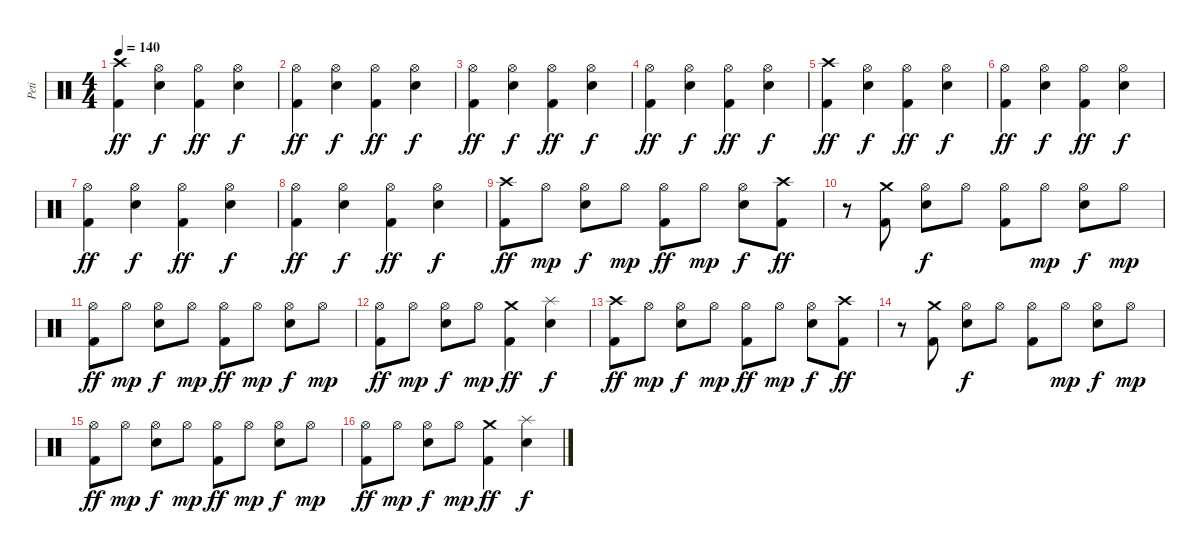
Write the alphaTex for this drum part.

\track ("Peti" "Peti") {instrument percussion}
\staff {score}
\articulation defaults
\ts (4 4)
\tempo 140
\clef neutral
\ks c
("Crash high (hit)" "Kick (hit) 2").4{dy ff} ("Hi-Hat (open)" "Snare (hit) 2").4{dy f} ("Hi-Hat (open)" "Kick (hit) 2").4{dy ff} ("Hi-Hat (open)" "Snare (hit) 2").4{dy f} |
("Hi-Hat (open)" "Kick (hit) 2").4{dy ff} ("Hi-Hat (open)" "Snare (hit) 2").4{dy f} ("Hi-Hat (open)" "Kick (hit) 2").4{dy ff} ("Hi-Hat (open)" "Snare (hit) 2").4{dy f} |
("Hi-Hat (open)" "Kick (hit) 2").4{dy ff} ("Hi-Hat (open)" "Snare (hit) 2").4{dy f} ("Hi-Hat (open)" "Kick (hit) 2").4{dy ff} ("Hi-Hat (open)" "Snare (hit) 2").4{dy f} |
("Hi-Hat (open)" "Kick (hit) 2").4{dy ff} ("Hi-Hat (open)" "Snare (hit) 2").4{dy f} ("Hi-Hat (open)" "Kick (hit) 2").4{dy ff} ("Hi-Hat (open)" "Snare (hit) 2").4{dy f} |
("Crash high (hit)" "Kick (hit) 2").4{dy ff} ("Hi-Hat (open)" "Snare (hit) 2").4{dy f} ("Hi-Hat (open)" "Kick (hit) 2").4{dy ff} ("Hi-Hat (open)" "Snare (hit) 2").4{dy f} |
("Hi-Hat (open)" "Kick (hit) 2").4{dy ff} ("Hi-Hat (open)" "Snare (hit) 2").4{dy f} ("Hi-Hat (open)" "Kick (hit) 2").4{dy ff} ("Hi-Hat (open)" "Snare (hit) 2").4{dy f} |
("Hi-Hat (open)" "Kick (hit) 2").4{dy ff} ("Hi-Hat (open)" "Snare (hit) 2").4{dy f} ("Hi-Hat (open)" "Kick (hit) 2").4{dy ff} ("Hi-Hat (open)" "Snare (hit) 2").4{dy f} |
("Hi-Hat (open)" "Kick (hit) 2").4{dy ff} ("Hi-Hat (open)" "Snare (hit) 2").4{dy f} ("Hi-Hat (open)" "Kick (hit) 2").4{dy ff} ("Hi-Hat (open)" "Snare (hit) 2").4{dy f} |
("Crash high (hit)" "Kick (hit) 2").8{dy ff} "Hi-Hat (open)".8{dy mp} ("Hi-Hat (open)" "Snare (hit) 2").8{dy f} "Hi-Hat (open)".8{dy mp} ("Hi-Hat (open)" "Kick (hit) 2").8{dy ff} "Hi-Hat (open)".8{dy mp} ("Hi-Hat (open)" "Snare (hit) 2").8{dy f} ("Crash high (hit)" "Kick (hit) 2").8{dy ff} |
r.8 ("Crash medium (hit)" "Kick (hit) 2").8 ("Hi-Hat (open)" "Snare (hit) 2").8{dy f} "Hi-Hat (open)".8 ("Hi-Hat (open)" "Kick (hit) 2").8 "Hi-Hat (open)".8{dy mp} ("Hi-Hat (open)" "Snare (hit) 2").8{dy f} "Hi-Hat (open)".8{dy mp} |
("Hi-Hat (open)" "Kick (hit) 2").8{dy ff} "Hi-Hat (open)".8{dy mp} ("Hi-Hat (open)" "Snare (hit) 2").8{dy f} "Hi-Hat (open)".8{dy mp} ("Hi-Hat (open)" "Kick (hit) 2").8{dy ff} "Hi-Hat (open)".8{dy mp} ("Hi-Hat (open)" "Snare (hit) 2").8{dy f} "Hi-Hat (open)".8{dy mp} |
("Hi-Hat (open)" "Kick (hit) 2").8{dy ff} "Hi-Hat (open)".8{dy mp} ("Hi-Hat (open)" "Snare (hit) 2").8{dy f} "Hi-Hat (open)".8{dy mp} ("Crash medium (hit)" "Kick (hit) 2").4{dy ff} ("Splash (hit)" "Snare (hit) 2").4{dy f} |
("Crash high (hit)" "Kick (hit) 2").8{dy ff} "Hi-Hat (open)".8{dy mp} ("Hi-Hat (open)" "Snare (hit) 2").8{dy f} "Hi-Hat (open)".8{dy mp} ("Hi-Hat (open)" "Kick (hit) 2").8{dy ff} "Hi-Hat (open)".8{dy mp} ("Hi-Hat (open)" "Snare (hit) 2").8{dy f} ("Crash high (hit)" "Kick (hit) 2").8{dy ff} |
r.8 ("Crash medium (hit)" "Kick (hit) 2").8 ("Hi-Hat (open)" "Snare (hit) 2").8{dy f} "Hi-Hat (open)".8 ("Hi-Hat (open)" "Kick (hit) 2").8 "Hi-Hat (open)".8{dy mp} ("Hi-Hat (open)" "Snare (hit) 2").8{dy f} "Hi-Hat (open)".8{dy mp} |
("Hi-Hat (open)" "Kick (hit) 2").8{dy ff} "Hi-Hat (open)".8{dy mp} ("Hi-Hat (open)" "Snare (hit) 2").8{dy f} "Hi-Hat (open)".8{dy mp} ("Hi-Hat (open)" "Kick (hit) 2").8{dy ff} "Hi-Hat (open)".8{dy mp} ("Hi-Hat (open)" "Snare (hit) 2").8{dy f} "Hi-Hat (open)".8{dy mp} |
("Hi-Hat (open)" "Kick (hit) 2").8{dy ff} "Hi-Hat (open)".8{dy mp} ("Hi-Hat (open)" "Snare (hit) 2").8{dy f} "Hi-Hat (open)".8{dy mp} ("Crash medium (hit)" "Kick (hit) 2").4{dy ff} ("Splash (hit)" "Snare (hit) 2").4{dy f}
